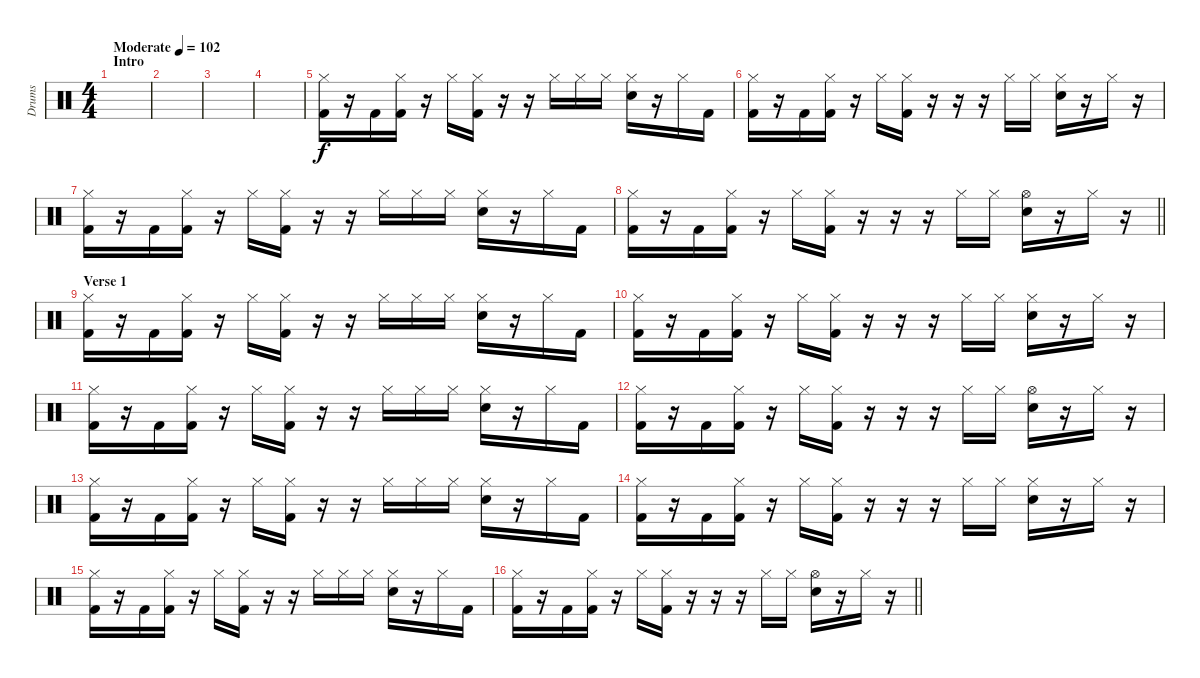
\track ("Drums" "Drums") {instrument percussion}
\staff {score}
\articulation defaults
\ts (4 4)
\section ("" "Intro")
\tempo (102 "Moderate")
\clef neutral
\ks c
|
|
|
|
("Hi-Hat (closed)" "Kick (hit) 2").16 r.16 "Kick (hit) 2".16 ("Hi-Hat (closed)" "Kick (hit) 2").16 r.16 "Hi-Hat (closed)".16 ("Hi-Hat (closed)" "Kick (hit) 2").16 r.16 r.16 "Hi-Hat (closed)".16 "Hi-Hat (closed)".16 "Hi-Hat (closed)".16 ("Hi-Hat (closed)" "Electric Snare (hit)").16 r.16 "Hi-Hat (closed)".16 "Kick (hit) 2".16 |
("Hi-Hat (closed)" "Kick (hit) 2").16 r.16 "Kick (hit) 2".16 ("Hi-Hat (closed)" "Kick (hit) 2").16 r.16 "Hi-Hat (closed)".16 ("Hi-Hat (closed)" "Kick (hit) 2").16 r.16 r.16 r.16 "Hi-Hat (closed)".16 "Hi-Hat (closed)".16 ("Hi-Hat (closed)" "Electric Snare (hit)").16 r.16 "Hi-Hat (closed)".16 r.16 |
("Hi-Hat (closed)" "Kick (hit) 2").16 r.16 "Kick (hit) 2".16 ("Hi-Hat (closed)" "Kick (hit) 2").16 r.16 "Hi-Hat (closed)".16 ("Hi-Hat (closed)" "Kick (hit) 2").16 r.16 r.16 "Hi-Hat (closed)".16 "Hi-Hat (closed)".16 "Hi-Hat (closed)".16 ("Hi-Hat (closed)" "Electric Snare (hit)").16 r.16 "Hi-Hat (closed)".16 "Kick (hit) 2".16 |
\barLineRight lightlight
("Hi-Hat (closed)" "Kick (hit) 2").16 r.16 "Kick (hit) 2".16 ("Hi-Hat (closed)" "Kick (hit) 2").16 r.16 "Hi-Hat (closed)".16 ("Hi-Hat (closed)" "Kick (hit) 2").16 r.16 r.16 r.16 "Hi-Hat (closed)".16 "Hi-Hat (closed)".16 ("Hi-Hat (open)" "Electric Snare (hit)").16 r.16 "Hi-Hat (closed)".16 r.16 |
\section ("" "Verse 1")
("Hi-Hat (closed)" "Kick (hit) 2").16 r.16 "Kick (hit) 2".16 ("Hi-Hat (closed)" "Kick (hit) 2").16 r.16 "Hi-Hat (closed)".16 ("Hi-Hat (closed)" "Kick (hit) 2").16 r.16 r.16 "Hi-Hat (closed)".16 "Hi-Hat (closed)".16 "Hi-Hat (closed)".16 ("Hi-Hat (closed)" "Electric Snare (hit)").16 r.16 "Hi-Hat (closed)".16 "Kick (hit) 2".16 |
("Hi-Hat (closed)" "Kick (hit) 2").16 r.16 "Kick (hit) 2".16 ("Hi-Hat (closed)" "Kick (hit) 2").16 r.16 "Hi-Hat (closed)".16 ("Hi-Hat (closed)" "Kick (hit) 2").16 r.16 r.16 r.16 "Hi-Hat (closed)".16 "Hi-Hat (closed)".16 ("Hi-Hat (closed)" "Electric Snare (hit)").16 r.16 "Hi-Hat (closed)".16 r.16 |
("Hi-Hat (closed)" "Kick (hit) 2").16 r.16 "Kick (hit) 2".16 ("Hi-Hat (closed)" "Kick (hit) 2").16 r.16 "Hi-Hat (closed)".16 ("Hi-Hat (closed)" "Kick (hit) 2").16 r.16 r.16 "Hi-Hat (closed)".16 "Hi-Hat (closed)".16 "Hi-Hat (closed)".16 ("Hi-Hat (closed)" "Electric Snare (hit)").16 r.16 "Hi-Hat (closed)".16 "Kick (hit) 2".16 |
("Hi-Hat (closed)" "Kick (hit) 2").16 r.16 "Kick (hit) 2".16 ("Hi-Hat (closed)" "Kick (hit) 2").16 r.16 "Hi-Hat (closed)".16 ("Hi-Hat (closed)" "Kick (hit) 2").16 r.16 r.16 r.16 "Hi-Hat (closed)".16 "Hi-Hat (closed)".16 ("Hi-Hat (open)" "Electric Snare (hit)").16 r.16 "Hi-Hat (closed)".16 r.16 |
("Hi-Hat (closed)" "Kick (hit) 2").16 r.16 "Kick (hit) 2".16 ("Hi-Hat (closed)" "Kick (hit) 2").16 r.16 "Hi-Hat (closed)".16 ("Hi-Hat (closed)" "Kick (hit) 2").16 r.16 r.16 "Hi-Hat (closed)".16 "Hi-Hat (closed)".16 "Hi-Hat (closed)".16 ("Hi-Hat (closed)" "Electric Snare (hit)").16 r.16 "Hi-Hat (closed)".16 "Kick (hit) 2".16 |
("Hi-Hat (closed)" "Kick (hit) 2").16 r.16 "Kick (hit) 2".16 ("Hi-Hat (closed)" "Kick (hit) 2").16 r.16 "Hi-Hat (closed)".16 ("Hi-Hat (closed)" "Kick (hit) 2").16 r.16 r.16 r.16 "Hi-Hat (closed)".16 "Hi-Hat (closed)".16 ("Hi-Hat (closed)" "Electric Snare (hit)").16 r.16 "Hi-Hat (closed)".16 r.16 |
("Hi-Hat (closed)" "Kick (hit) 2").16 r.16 "Kick (hit) 2".16 ("Hi-Hat (closed)" "Kick (hit) 2").16 r.16 "Hi-Hat (closed)".16 ("Hi-Hat (closed)" "Kick (hit) 2").16 r.16 r.16 "Hi-Hat (closed)".16 "Hi-Hat (closed)".16 "Hi-Hat (closed)".16 ("Hi-Hat (closed)" "Electric Snare (hit)").16 r.16 "Hi-Hat (closed)".16 "Kick (hit) 2".16 |
\barLineRight lightlight
("Hi-Hat (closed)" "Kick (hit) 2").16 r.16 "Kick (hit) 2".16 ("Hi-Hat (closed)" "Kick (hit) 2").16 r.16 "Hi-Hat (closed)".16 ("Hi-Hat (closed)" "Kick (hit) 2").16 r.16 r.16 r.16 "Hi-Hat (closed)".16 "Hi-Hat (closed)".16 ("Hi-Hat (open)" "Electric Snare (hit)").16 r.16 "Hi-Hat (closed)".16 r.16
